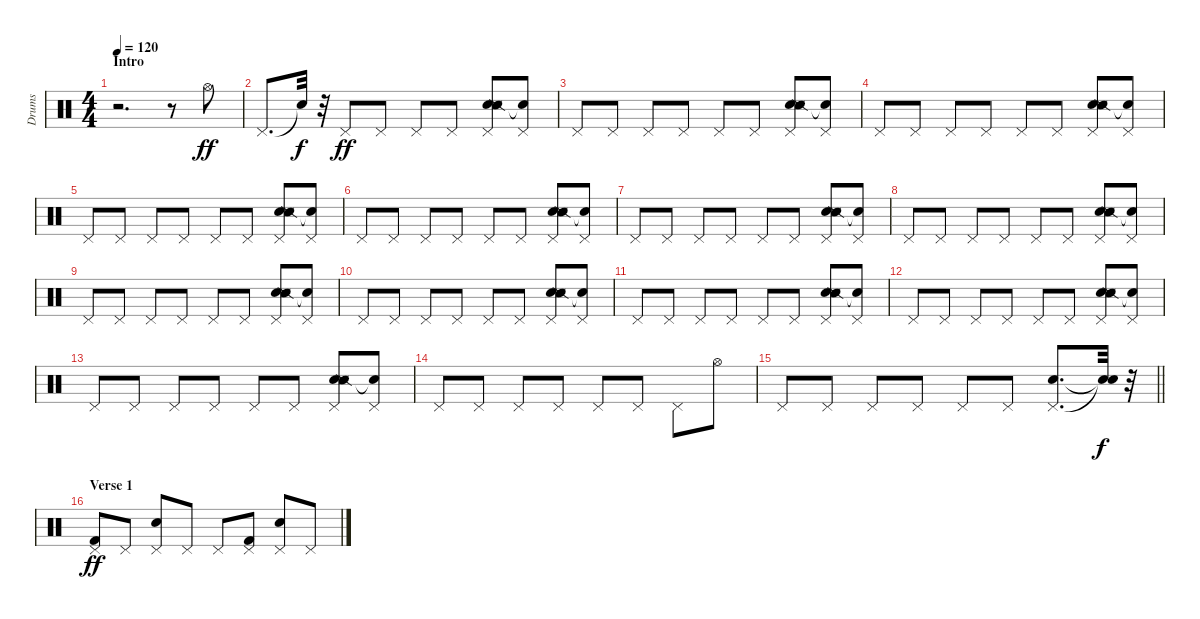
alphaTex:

\track ("Drums" "Drums") {instrument percussion}
\staff {score}
\articulation defaults
\ts (4 4)
\section ("" "Intro")
\tempo 120
\clef neutral
\ks c
r.2{d dy ff} r.8 "Hi-Hat (open)".8 |
"Pedal Hi-Hat (hit)".8{d} "Snare (hit)"{t}.32{dy f} r.32 "Pedal Hi-Hat (hit)".8{dy ff} "Pedal Hi-Hat (hit)".8 "Pedal Hi-Hat (hit)".8 "Pedal Hi-Hat (hit)".8 ("Pedal Hi-Hat (hit)" "Hand Clap (hit)" "Snare (side stick) 2" "Metronome (hit)").8 ("Pedal Hi-Hat (hit)" "Snare (hit)"{t}).8 |
"Pedal Hi-Hat (hit)".8 "Pedal Hi-Hat (hit)".8 "Pedal Hi-Hat (hit)".8 "Pedal Hi-Hat (hit)".8 "Pedal Hi-Hat (hit)".8 "Pedal Hi-Hat (hit)".8 ("Pedal Hi-Hat (hit)" "Hand Clap (hit)" "Snare (side stick) 2" "Metronome (hit)").8 ("Pedal Hi-Hat (hit)" "Snare (hit)"{t}).8 |
"Pedal Hi-Hat (hit)".8 "Pedal Hi-Hat (hit)".8 "Pedal Hi-Hat (hit)".8 "Pedal Hi-Hat (hit)".8 "Pedal Hi-Hat (hit)".8 "Pedal Hi-Hat (hit)".8 ("Pedal Hi-Hat (hit)" "Hand Clap (hit)" "Snare (side stick) 2" "Metronome (hit)").8 ("Pedal Hi-Hat (hit)" "Snare (hit)"{t}).8 |
"Pedal Hi-Hat (hit)".8 "Pedal Hi-Hat (hit)".8 "Pedal Hi-Hat (hit)".8 "Pedal Hi-Hat (hit)".8 "Pedal Hi-Hat (hit)".8 "Pedal Hi-Hat (hit)".8 ("Pedal Hi-Hat (hit)" "Hand Clap (hit)" "Snare (side stick) 2" "Metronome (hit)").8 ("Pedal Hi-Hat (hit)" "Snare (hit)"{t}).8 |
"Pedal Hi-Hat (hit)".8 "Pedal Hi-Hat (hit)".8 "Pedal Hi-Hat (hit)".8 "Pedal Hi-Hat (hit)".8 "Pedal Hi-Hat (hit)".8 "Pedal Hi-Hat (hit)".8 ("Pedal Hi-Hat (hit)" "Hand Clap (hit)" "Snare (side stick) 2" "Metronome (hit)").8 ("Pedal Hi-Hat (hit)" "Snare (hit)"{t}).8 |
"Pedal Hi-Hat (hit)".8 "Pedal Hi-Hat (hit)".8 "Pedal Hi-Hat (hit)".8 "Pedal Hi-Hat (hit)".8 "Pedal Hi-Hat (hit)".8 "Pedal Hi-Hat (hit)".8 ("Pedal Hi-Hat (hit)" "Hand Clap (hit)" "Snare (side stick) 2" "Metronome (hit)").8 ("Pedal Hi-Hat (hit)" "Snare (hit)"{t}).8 |
"Pedal Hi-Hat (hit)".8 "Pedal Hi-Hat (hit)".8 "Pedal Hi-Hat (hit)".8 "Pedal Hi-Hat (hit)".8 "Pedal Hi-Hat (hit)".8 "Pedal Hi-Hat (hit)".8 ("Pedal Hi-Hat (hit)" "Hand Clap (hit)" "Snare (side stick) 2" "Metronome (hit)").8 ("Pedal Hi-Hat (hit)" "Snare (hit)"{t}).8 |
"Pedal Hi-Hat (hit)".8 "Pedal Hi-Hat (hit)".8 "Pedal Hi-Hat (hit)".8 "Pedal Hi-Hat (hit)".8 "Pedal Hi-Hat (hit)".8 "Pedal Hi-Hat (hit)".8 ("Pedal Hi-Hat (hit)" "Hand Clap (hit)" "Snare (side stick) 2" "Metronome (hit)").8 ("Pedal Hi-Hat (hit)" "Snare (hit)"{t}).8 |
"Pedal Hi-Hat (hit)".8 "Pedal Hi-Hat (hit)".8 "Pedal Hi-Hat (hit)".8 "Pedal Hi-Hat (hit)".8 "Pedal Hi-Hat (hit)".8 "Pedal Hi-Hat (hit)".8 ("Pedal Hi-Hat (hit)" "Hand Clap (hit)" "Snare (side stick) 2" "Metronome (hit)").8 ("Pedal Hi-Hat (hit)" "Snare (hit)"{t}).8 |
"Pedal Hi-Hat (hit)".8 "Pedal Hi-Hat (hit)".8 "Pedal Hi-Hat (hit)".8 "Pedal Hi-Hat (hit)".8 "Pedal Hi-Hat (hit)".8 "Pedal Hi-Hat (hit)".8 ("Pedal Hi-Hat (hit)" "Hand Clap (hit)" "Snare (side stick) 2" "Metronome (hit)").8 ("Pedal Hi-Hat (hit)" "Snare (hit)"{t}).8 |
"Pedal Hi-Hat (hit)".8 "Pedal Hi-Hat (hit)".8 "Pedal Hi-Hat (hit)".8 "Pedal Hi-Hat (hit)".8 "Pedal Hi-Hat (hit)".8 "Pedal Hi-Hat (hit)".8 ("Pedal Hi-Hat (hit)" "Hand Clap (hit)" "Snare (side stick) 2" "Metronome (hit)").8 ("Pedal Hi-Hat (hit)" "Snare (hit)"{t}).8 |
"Pedal Hi-Hat (hit)".8 "Pedal Hi-Hat (hit)".8 "Pedal Hi-Hat (hit)".8 "Pedal Hi-Hat (hit)".8 "Pedal Hi-Hat (hit)".8 "Pedal Hi-Hat (hit)".8 ("Pedal Hi-Hat (hit)" "Hand Clap (hit)" "Snare (side stick) 2" "Metronome (hit)").8 ("Pedal Hi-Hat (hit)" "Snare (hit)"{t}).8 |
"Pedal Hi-Hat (hit)".8 "Pedal Hi-Hat (hit)".8 "Pedal Hi-Hat (hit)".8 "Pedal Hi-Hat (hit)".8 "Pedal Hi-Hat (hit)".8 "Pedal Hi-Hat (hit)".8 "Pedal Hi-Hat (hit)".8 "Hi-Hat (open)".8 |
\barLineRight lightlight "Pedal Hi-Hat (hit)".8 "Pedal Hi-Hat (hit)".8 "Pedal Hi-Hat (hit)".8 "Pedal Hi-Hat (hit)".8 "Pedal Hi-Hat (hit)".8 "Pedal Hi-Hat (hit)".8
("Pedal Hi-Hat (hit)" "Snare (hit) 2").8{d} ("Snare (hit)"{t} "Snare (hit)"{t}).32{dy f} r.32 |
\section ("" "Verse 1")
("Pedal Hi-Hat (hit)" "Kick (hit) 2").8{dy ff} "Pedal Hi-Hat (hit)".8 ("Pedal Hi-Hat (hit)" "Snare (hit) 2").8 "Pedal Hi-Hat (hit)".8 "Pedal Hi-Hat (hit)".8 ("Pedal Hi-Hat (hit)" "Kick (hit) 2").8 ("Pedal Hi-Hat (hit)" "Snare (hit) 2").8 "Pedal Hi-Hat (hit)".8
